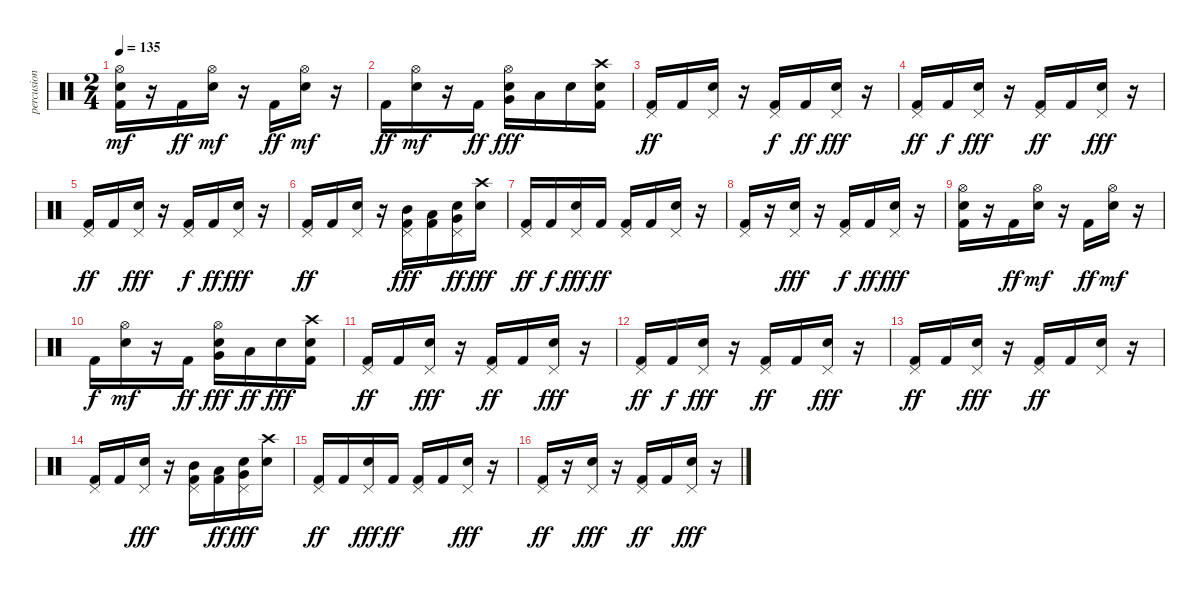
\track ("percusion" "percusion") {instrument percussion}
\staff {score}
\articulation defaults
\ts (2 4)
\tempo 135
\clef neutral
\ks c
("Kick (hit) 2" "Electric Snare (hit)" "Hi-Hat (open)").16{dy mf} r.16 "Kick (hit) 2".16{dy ff} ("Electric Snare (hit)" "Hi-Hat (open)").16{dy mf} r.16 "Kick (hit) 2".16{dy ff} ("Electric Snare (hit)" "Hi-Hat (open)").16{dy mf} r.16 |
"Kick (hit) 2".16{dy ff} ("Electric Snare (hit)" "Hi-Hat (open)").16{dy mf} r.16 "Kick (hit) 2".16{dy ff} ("Electric Snare (hit)" "Very Low Tom (hit)" "Hi-Hat (open)").16{dy fff} "Low Floor Tom (hit)".16 "Electric Snare (hit)".16 ("Kick (hit) 2" "Electric Snare (hit)" "Crash high (hit)").16 |
("Kick (hit) 2" "Pedal Hi-Hat (hit)").16{dy ff} "Kick (hit) 2".16 ("Electric Snare (hit)" "Pedal Hi-Hat (hit)").16 r.16 ("Kick (hit) 2" "Pedal Hi-Hat (hit)").16{dy f} "Kick (hit) 2".16{dy ff} ("Electric Snare (hit)" "Pedal Hi-Hat (hit)").16{dy fff} r.16 |
("Kick (hit) 2" "Pedal Hi-Hat (hit)").16{dy ff} "Kick (hit) 2".16{dy f} ("Electric Snare (hit)" "Pedal Hi-Hat (hit)").16{dy fff} r.16 ("Kick (hit) 2" "Pedal Hi-Hat (hit)").16{dy ff} "Kick (hit) 2".16 ("Electric Snare (hit)" "Pedal Hi-Hat (hit)").16{dy fff} r.16 |
("Kick (hit) 2" "Pedal Hi-Hat (hit)").16{dy ff} "Kick (hit) 2".16 ("Electric Snare (hit)" "Pedal Hi-Hat (hit)").16{dy fff} r.16 ("Kick (hit) 2" "Pedal Hi-Hat (hit)").16{dy f} "Kick (hit) 2".16{dy ff} ("Electric Snare (hit)" "Pedal Hi-Hat (hit)").16{dy fff} r.16 |
("Kick (hit) 2" "Pedal Hi-Hat (hit)").16{dy ff} "Kick (hit) 2".16 ("Electric Snare (hit)" "Pedal Hi-Hat (hit)").16 r.16 ("Kick (hit) 2" "Mid Tom (hit)" "Pedal Hi-Hat (hit)").16{dy fff} ("Kick (hit) 2" "Low Tom (hit)").16 ("Electric Snare (hit)" "Very Low Tom (hit)" "Pedal Hi-Hat (hit)").16{dy ff} ("Electric Snare (hit)" "Crash high (hit)").16{dy fff} |
("Kick (hit) 2" "Pedal Hi-Hat (hit)").16{dy ff} "Kick (hit) 2".16{dy f} ("Electric Snare (hit)" "Pedal Hi-Hat (hit)").16{dy fff} "Kick (hit) 2".16{dy ff} ("Kick (hit) 2" "Pedal Hi-Hat (hit)").16 "Kick (hit) 2".16 ("Electric Snare (hit)" "Pedal Hi-Hat (hit)").16 r.16 |
("Kick (hit) 2" "Pedal Hi-Hat (hit)").16 r.16 ("Electric Snare (hit)" "Pedal Hi-Hat (hit)").16{dy fff} r.16 ("Kick (hit) 2" "Pedal Hi-Hat (hit)").16{dy f} "Kick (hit) 2".16{dy ff} ("Electric Snare (hit)" "Pedal Hi-Hat (hit)").16{dy fff} r.16 |
("Kick (hit) 2" "Electric Snare (hit)" "Hi-Hat (open)").16 r.16 "Kick (hit) 2".16{dy ff} ("Electric Snare (hit)" "Hi-Hat (open)").16{dy mf} r.16 "Kick (hit) 2".16{dy ff} ("Electric Snare (hit)" "Hi-Hat (open)").16{dy mf} r.16 |
"Kick (hit) 2".16{dy f} ("Electric Snare (hit)" "Hi-Hat (open)").16{dy mf} r.16 "Kick (hit) 2".16{dy ff} ("Electric Snare (hit)" "Very Low Tom (hit)" "Hi-Hat (open)").16{dy fff} "Low Floor Tom (hit)".16{dy ff} "Electric Snare (hit)".16{dy fff} ("Kick (hit) 2" "Electric Snare (hit)" "Crash high (hit)").16 |
("Kick (hit) 2" "Pedal Hi-Hat (hit)").16{dy ff} "Kick (hit) 2".16 ("Electric Snare (hit)" "Pedal Hi-Hat (hit)").16{dy fff} r.16 ("Kick (hit) 2" "Pedal Hi-Hat (hit)").16{dy ff} "Kick (hit) 2".16 ("Electric Snare (hit)" "Pedal Hi-Hat (hit)").16{dy fff} r.16 |
("Kick (hit) 2" "Pedal Hi-Hat (hit)").16{dy ff} "Kick (hit) 2".16{dy f} ("Electric Snare (hit)" "Pedal Hi-Hat (hit)").16{dy fff} r.16 ("Kick (hit) 2" "Pedal Hi-Hat (hit)").16{dy ff} "Kick (hit) 2".16 ("Electric Snare (hit)" "Pedal Hi-Hat (hit)").16{dy fff} r.16 |
("Kick (hit) 2" "Pedal Hi-Hat (hit)").16{dy ff} "Kick (hit) 2".16 ("Electric Snare (hit)" "Pedal Hi-Hat (hit)").16{dy fff} r.16 ("Kick (hit) 2" "Pedal Hi-Hat (hit)").16{dy ff} "Kick (hit) 2".16 ("Electric Snare (hit)" "Pedal Hi-Hat (hit)").16 r.16 |
("Kick (hit) 2" "Pedal Hi-Hat (hit)").16 "Kick (hit) 2".16 ("Electric Snare (hit)" "Pedal Hi-Hat (hit)").16{dy fff} r.16 ("Kick (hit) 2" "Mid Tom (hit)" "Pedal Hi-Hat (hit)").16 ("Kick (hit) 2" "Low Tom (hit)").16{dy ff} ("Electric Snare (hit)" "Very Low Tom (hit)" "Pedal Hi-Hat (hit)").16{dy fff} ("Electric Snare (hit)" "Crash high (hit)").16 |
("Kick (hit) 2" "Pedal Hi-Hat (hit)").16{dy ff} "Kick (hit) 2".16 ("Electric Snare (hit)" "Pedal Hi-Hat (hit)").16{dy fff} "Kick (hit) 2".16{dy ff} ("Kick (hit) 2" "Pedal Hi-Hat (hit)").16 "Kick (hit) 2".16 ("Electric Snare (hit)" "Pedal Hi-Hat (hit)").16{dy fff} r.16 |
("Kick (hit) 2" "Pedal Hi-Hat (hit)").16{dy ff} r.16 ("Electric Snare (hit)" "Pedal Hi-Hat (hit)").16{dy fff} r.16 ("Kick (hit) 2" "Pedal Hi-Hat (hit)").16{dy ff} "Kick (hit) 2".16 ("Electric Snare (hit)" "Pedal Hi-Hat (hit)").16{dy fff} r.16
